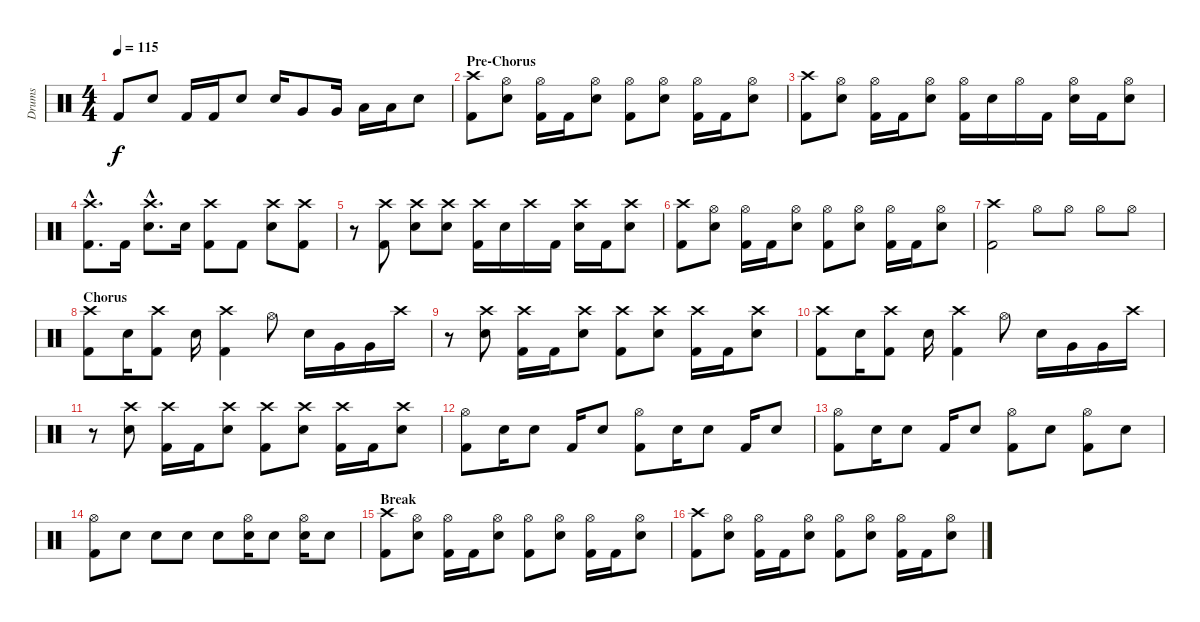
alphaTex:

\track ("Drums" "Drums") {instrument percussion}
\staff {score}
\articulation defaults
\ts (4 4)
\tempo 115
\clef neutral
\ks c "Kick (hit) 2".8{dy f} "Electric Snare (hit)".8 "Kick (hit) 2".16 "Kick (hit) 2".16 "Electric Snare (hit)".8 "Electric Snare (hit)".16 "Very Low Tom (hit)".8 "Very Low Tom (hit)".16 "Low Tom (hit)".16 "Low Tom (hit)".16 "Electric Snare (hit)".8
|
\section ("" "Pre-Chorus")
("Crash high (hit)" "Kick (hit) 2").8 ("Hi-Hat (open)" "Electric Snare (hit)").8 ("Hi-Hat (open)" "Kick (hit) 2").16 "Kick (hit) 2".16 ("Hi-Hat (open)" "Electric Snare (hit)").8 ("Hi-Hat (open)" "Kick (hit) 2").8 ("Hi-Hat (open)" "Electric Snare (hit)").8 ("Hi-Hat (open)" "Kick (hit) 2").16 "Kick (hit) 2".16 ("Hi-Hat (open)" "Electric Snare (hit)").8 |
("Crash high (hit)" "Kick (hit) 2").8 ("Hi-Hat (open)" "Electric Snare (hit)").8 ("Hi-Hat (open)" "Kick (hit) 2").16 "Kick (hit) 2".16 ("Hi-Hat (open)" "Electric Snare (hit)").8 ("Hi-Hat (open)" "Kick (hit) 2").16 "Electric Snare (hit)".16 "Hi-Hat (open)".16 "Kick (hit) 2".16 ("Hi-Hat (open)" "Electric Snare (hit)").16 "Kick (hit) 2".16 ("Hi-Hat (open)" "Electric Snare (hit)").8 |
("Crash high (hit)"{hac} "Kick (hit) 2"{hac}).8{d} "Kick (hit) 2".16 ("Crash high (hit)"{hac} "Electric Snare (hit)"{hac}).8{d} "Electric Snare (hit)".16 ("Crash high (hit)" "Kick (hit) 2").8 "Kick (hit) 2".8 ("Crash high (hit)" "Electric Snare (hit)").8 ("Crash high (hit)" "Kick (hit) 2").8 |
r.8 ("Crash high (hit)" "Kick (hit) 2").8 ("Crash high (hit)" "Electric Snare (hit)").8 ("Crash high (hit)" "Electric Snare (hit)").8 ("Crash high (hit)" "Kick (hit) 2").16 "Electric Snare (hit)".16 "Crash high (hit)".16 "Kick (hit) 2".16 ("Crash high (hit)" "Electric Snare (hit)").16 "Kick (hit) 2".16 ("Crash high (hit)" "Electric Snare (hit)").8 |
("Crash high (hit)" "Kick (hit) 2").8 ("Hi-Hat (open)" "Electric Snare (hit)").8 ("Hi-Hat (open)" "Kick (hit) 2").16 "Kick (hit) 2".16 ("Hi-Hat (open)" "Electric Snare (hit)").8 ("Hi-Hat (open)" "Kick (hit) 2").8 ("Hi-Hat (open)" "Electric Snare (hit)").8 ("Hi-Hat (open)" "Kick (hit) 2").16 "Kick (hit) 2".16 ("Hi-Hat (open)" "Electric Snare (hit)").8 |
("Crash high (hit)" "Kick (hit) 2").2 "Hi-Hat (open)".8 "Hi-Hat (open)".8 "Hi-Hat (open)".8 "Hi-Hat (open)".8 |
\section ("" "Chorus")
("Crash high (hit)" "Kick (hit) 2").8 "Electric Snare (hit)".16 ("Crash high (hit)" "Kick (hit) 2").8 "Electric Snare (hit)".16 ("Crash high (hit)" "Kick (hit) 2").4 "Hi-Hat (open)".8 "Electric Snare (hit)".16 "Very Low Tom (hit)".16 "Very Low Tom (hit)".16 "Crash high (hit)".16 |
r.8 ("Crash high (hit)" "Electric Snare (hit)").8 ("Crash high (hit)" "Kick (hit) 2").16 "Kick (hit) 2".16 ("Crash high (hit)" "Electric Snare (hit)").8 ("Crash high (hit)" "Kick (hit) 2").8 ("Crash high (hit)" "Electric Snare (hit)").8 ("Crash high (hit)" "Kick (hit) 2").16 "Kick (hit) 2".16 ("Crash high (hit)" "Electric Snare (hit)").8 |
("Crash high (hit)" "Kick (hit) 2").8 "Electric Snare (hit)".16 ("Crash high (hit)" "Kick (hit) 2").8 "Electric Snare (hit)".16 ("Crash high (hit)" "Kick (hit) 2").4 "Hi-Hat (open)".8 "Electric Snare (hit)".16 "Very Low Tom (hit)".16 "Very Low Tom (hit)".16 "Crash high (hit)".16 |
r.8 ("Crash high (hit)" "Electric Snare (hit)").8 ("Crash high (hit)" "Kick (hit) 2").16 "Kick (hit) 2".16 ("Crash high (hit)" "Electric Snare (hit)").8 ("Crash high (hit)" "Kick (hit) 2").8 ("Crash high (hit)" "Electric Snare (hit)").8 ("Crash high (hit)" "Kick (hit) 2").16 "Kick (hit) 2".16 ("Crash high (hit)" "Electric Snare (hit)").8 |
("Hi-Hat (open)" "Kick (hit) 2").8 "Electric Snare (hit)".16 "Electric Snare (hit)".8 "Kick (hit) 2".16 "Electric Snare (hit)".8 ("Hi-Hat (open)" "Kick (hit) 2").8 "Electric Snare (hit)".16 "Electric Snare (hit)".8 "Kick (hit) 2".16 "Electric Snare (hit)".8 |
("Hi-Hat (open)" "Kick (hit) 2").8 "Electric Snare (hit)".16 "Electric Snare (hit)".8 "Kick (hit) 2".16 "Electric Snare (hit)".8 ("Hi-Hat (open)" "Kick (hit) 2").8 "Electric Snare (hit)".8 ("Hi-Hat (open)" "Kick (hit) 2").8 "Electric Snare (hit)".8 |
("Hi-Hat (open)" "Kick (hit) 2").8 "Electric Snare (hit)".8 "Electric Snare (hit)".8 "Electric Snare (hit)".8 "Electric Snare (hit)".8 ("Hi-Hat (open)" "Hand Clap (hit)").16 "Hand Clap (hit)".8 ("Hi-Hat (open)" "Hand Clap (hit)").16 "Hand Clap (hit)".8 |
\section ("" "Break")
("Crash high (hit)" "Kick (hit) 2").8 ("Hi-Hat (open)" "Electric Snare (hit)").8 ("Hi-Hat (open)" "Kick (hit) 2").16 "Kick (hit) 2".16 ("Hi-Hat (open)" "Electric Snare (hit)").8 ("Hi-Hat (open)" "Kick (hit) 2").8 ("Hi-Hat (open)" "Electric Snare (hit)").8 ("Hi-Hat (open)" "Kick (hit) 2").16 "Kick (hit) 2".16 ("Hi-Hat (open)" "Electric Snare (hit)").8 |
("Crash high (hit)" "Kick (hit) 2").8 ("Hi-Hat (open)" "Electric Snare (hit)").8 ("Hi-Hat (open)" "Kick (hit) 2").16 "Kick (hit) 2".16 ("Hi-Hat (open)" "Electric Snare (hit)").8 ("Hi-Hat (open)" "Kick (hit) 2").8 ("Hi-Hat (open)" "Electric Snare (hit)").8 ("Hi-Hat (open)" "Kick (hit) 2").16 "Kick (hit) 2".16 ("Hi-Hat (open)" "Electric Snare (hit)").8
